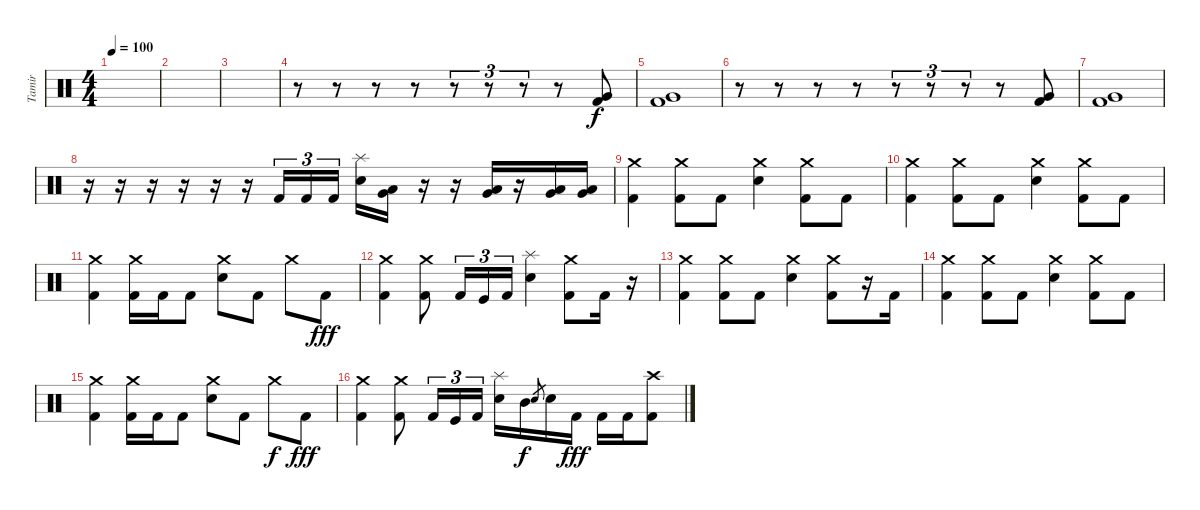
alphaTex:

\track ("Tamir" "Tamir") {instrument percussion}
\staff {score}
\articulation defaults
\ts (4 4)
\tempo 100
\clef neutral
\ks c
|
|
|
r.8 r.8 r.8 r.8 r.8{tu (3 2)} r.8{tu (3 2)} r.8{tu (3 2)} r.8 ("Very Low Tom (hit)" "Kick (hit) 2").8 |
("Very Low Tom (hit)" "Kick (hit) 2").1 |
r.8 r.8 r.8 r.8 r.8{tu (3 2)} r.8{tu (3 2)} r.8{tu (3 2)} r.8 ("Very Low Tom (hit)" "Kick (hit) 2").8 |
("Very Low Tom (hit)" "Kick (hit) 2").1 |
r.16 r.16 r.16 r.16 r.16 r.16 "Kick (hit) 2".16{tu (3 2)} "Kick (hit) 2".16{tu (3 2)} "Kick (hit) 2".16{tu (3 2)} ("Splash (hit)" "Electric Snare (hit)").16 ("Low Floor Tom (hit)" "Very Low Tom (hit)").16 r.16 r.16 ("Low Tom (hit)" "Very Low Tom (hit)").16 r.16 ("Low Tom (hit)" "Very Low Tom (hit)").16 ("Low Tom (hit)" "Very Low Tom (hit)").16 |
("Crash medium (hit)" "Kick (hit) 2").4 ("Crash medium (hit)" "Kick (hit) 2").8 "Kick (hit) 2".8 ("Crash medium (hit)" "Electric Snare (hit)").4 ("Crash medium (hit)" "Kick (hit) 2").8 "Kick (hit) 2".8 |
("Crash medium (hit)" "Kick (hit) 2").4 ("Crash medium (hit)" "Kick (hit) 2").8 "Kick (hit) 2".8 ("Crash medium (hit)" "Electric Snare (hit)").4 ("Crash medium (hit)" "Kick (hit) 2").8 "Kick (hit) 2".8 |
("Crash medium (hit)" "Kick (hit) 2").4 ("Crash medium (hit)" "Kick (hit) 2").16 "Kick (hit) 2".16 "Kick (hit) 2".8 ("Crash medium (hit)" "Electric Snare (hit)").8 "Kick (hit) 2".8 "Crash medium (hit)".8{dy f} "Kick (hit) 2".8{dy fff} |
("Crash medium (hit)" "Kick (hit) 2").4 ("Crash medium (hit)" "Kick (hit) 2").8 "Kick (hit) 2".16{tu (3 2)} "Kick (hit)".16{tu (3 2)} "Kick (hit) 2".16{tu (3 2)} ("Splash (hit)" "Electric Snare (hit)").4 ("Crash medium (hit)" "Kick (hit) 2").8 "Kick (hit) 2".16 r.16 |
("Crash medium (hit)" "Kick (hit) 2").4 ("Crash medium (hit)" "Kick (hit) 2").8 "Kick (hit) 2".8 ("Crash medium (hit)" "Electric Snare (hit)").4 ("Crash medium (hit)" "Kick (hit) 2").8 r.16 "Kick (hit) 2".16 |
("Crash medium (hit)" "Kick (hit) 2").4 ("Crash medium (hit)" "Kick (hit) 2").8 "Kick (hit) 2".8 ("Crash medium (hit)" "Electric Snare (hit)").4 ("Crash medium (hit)" "Kick (hit) 2").8 "Kick (hit) 2".8 |
("Crash medium (hit)" "Kick (hit) 2").4 ("Crash medium (hit)" "Kick (hit) 2").16 "Kick (hit) 2".16 "Kick (hit) 2".8 ("Crash medium (hit)" "Electric Snare (hit)").8 "Kick (hit) 2".8 "Crash medium (hit)".8{dy f} "Kick (hit) 2".8{dy fff} |
("Crash medium (hit)" "Kick (hit) 2").4 ("Crash medium (hit)" "Kick (hit) 2").8 "Kick (hit) 2".16{tu (3 2)} "Kick (hit)".16{tu (3 2)} "Kick (hit) 2".16{tu (3 2)} ("Splash (hit)" "Electric Snare (hit)").16 "Mid Tom (hit)".16{dy f} "Electric Snare (hit)".8{gr} "Electric Snare (hit)".16 "Kick (hit) 2".16{dy fff} "Kick (hit) 2".16 "Kick (hit) 2".16 ("Crash high (hit)" "Kick (hit) 2").8
